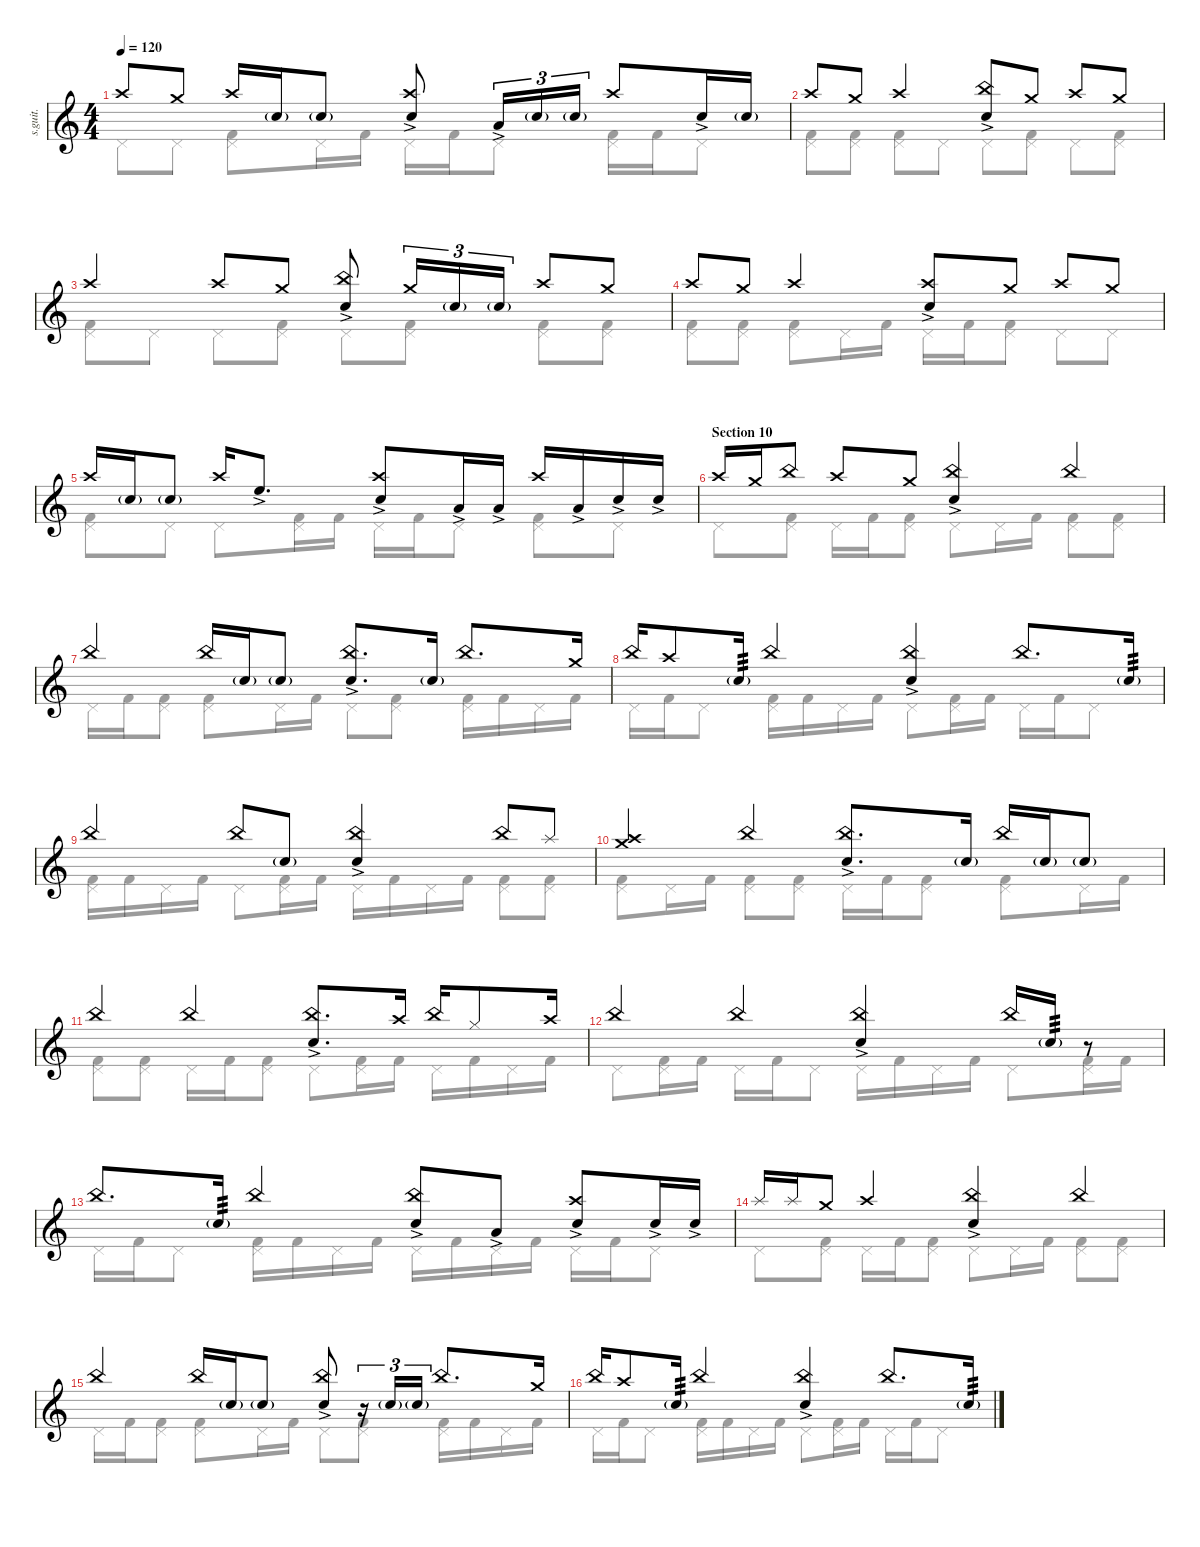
\defaultSystemsLayout 4
\hideDynamics
\bracketExtendMode nobrackets
\track ("Matt Halpern" "s.guit.") {instrument percussion}
\staff {score}
\articulation defaults
\voice
\ts (4 4)
\tempo 120
\clef g2
\ks c "Crash high (hit)".8{lyrics (0 "") lyrics (1 "") lyrics (2 "") lyrics (3 "") lyrics (4 "") dy f} "Crash medium (hit)".8{lyrics (0 "") lyrics (1 "") lyrics (2 "") lyrics (3 "") lyrics (4 "")} "Crash high (hit)".16{lyrics (0 "") lyrics (1 "") lyrics (2 "") lyrics (3 "") lyrics (4 "")} "Snare (hit) 2"{g}.16{lyrics (0 "") lyrics (1 "") lyrics (2 "") lyrics (3 "") lyrics (4 "")} "Snare (hit) 2"{g}.8{lyrics (0 "") lyrics (1 "") lyrics (2 "") lyrics (3 "") lyrics (4 "")}
("Crash high (hit)" "Snare (hit) 2"{ac}).8{lyrics (0 "") lyrics (1 "") lyrics (2 "") lyrics (3 "") lyrics (4 "")} "Low Tom (hit)"{ac}.16{tu (3 2) lyrics (0 "") lyrics (1 "") lyrics (2 "") lyrics (3 "") lyrics (4 "")} "Snare (hit) 2"{g}.16{tu (3 2) lyrics (0 "") lyrics (1 "") lyrics (2 "") lyrics (3 "") lyrics (4 "")} "Snare (hit) 2"{g}.16{tu (3 2) lyrics (0 "") lyrics (1 "") lyrics (2 "") lyrics (3 "") lyrics (4 "")} "Crash high (hit)".8{lyrics (0 "") lyrics (1 "") lyrics (2 "") lyrics (3 "") lyrics (4 "")} "Snare (hit) 2"{ac}.16{lyrics (0 "") lyrics (1 "") lyrics (2 "") lyrics (3 "") lyrics (4 "")} "Snare (hit) 2"{g}.16{lyrics (0 "") lyrics (1 "") lyrics (2 "") lyrics (3 "") lyrics (4 "")} |
"Crash high (hit)".8{lyrics (0 "") lyrics (1 "") lyrics (2 "") lyrics (3 "") lyrics (4 "")} "Crash medium (hit)".8{lyrics (0 "") lyrics (1 "") lyrics (2 "") lyrics (3 "") lyrics (4 "")} "Crash high (hit)".4{lyrics (0 "") lyrics (1 "") lyrics (2 "") lyrics (3 "") lyrics (4 "")} ("Snare (hit) 2"{ac} "China (hit)").8{lyrics (0 "") lyrics (1 "") lyrics (2 "") lyrics (3 "") lyrics (4 "")} "Crash medium (hit)".8{lyrics (0 "") lyrics (1 "") lyrics (2 "") lyrics (3 "") lyrics (4 "")} "Crash high (hit)".8{lyrics (0 "") lyrics (1 "") lyrics (2 "") lyrics (3 "") lyrics (4 "")} "Crash medium (hit)".8{lyrics (0 "") lyrics (1 "") lyrics (2 "") lyrics (3 "") lyrics (4 "")} |
"Crash high (hit)".4{lyrics (0 "") lyrics (1 "") lyrics (2 "") lyrics (3 "") lyrics (4 "")} "Crash high (hit)".8{lyrics (0 "") lyrics (1 "") lyrics (2 "") lyrics (3 "") lyrics (4 "")} "Crash medium (hit)".8{lyrics (0 "") lyrics (1 "") lyrics (2 "") lyrics (3 "") lyrics (4 "")} ("China (hit)" "Snare (hit) 2"{ac}).8{lyrics (0 "") lyrics (1 "") lyrics (2 "") lyrics (3 "") lyrics (4 "")} "Crash medium (hit)".16{tu (3 2) lyrics (0 "") lyrics (1 "") lyrics (2 "") lyrics (3 "") lyrics (4 "")} "Snare (hit) 2"{g}.16{tu (3 2) lyrics (0 "") lyrics (1 "") lyrics (2 "") lyrics (3 "") lyrics (4 "")} "Snare (hit) 2"{g}.16{tu (3 2) lyrics (0 "") lyrics (1 "") lyrics (2 "") lyrics (3 "") lyrics (4 "")} "Crash high (hit)".8{lyrics (0 "") lyrics (1 "") lyrics (2 "") lyrics (3 "") lyrics (4 "")} "Crash medium (hit)".8{lyrics (0 "") lyrics (1 "") lyrics (2 "") lyrics (3 "") lyrics (4 "")} |
"Crash high (hit)".8{lyrics (0 "") lyrics (1 "") lyrics (2 "") lyrics (3 "") lyrics (4 "")} "Crash medium (hit)".8{lyrics (0 "") lyrics (1 "") lyrics (2 "") lyrics (3 "") lyrics (4 "")} "Crash high (hit)".4{lyrics (0 "") lyrics (1 "") lyrics (2 "") lyrics (3 "") lyrics (4 "")} ("Crash high (hit)" "Snare (hit) 2"{ac}).8{lyrics (0 "") lyrics (1 "") lyrics (2 "") lyrics (3 "") lyrics (4 "")} "Crash medium (hit)".8{lyrics (0 "") lyrics (1 "") lyrics (2 "") lyrics (3 "") lyrics (4 "")} "Crash high (hit)".8{lyrics (0 "") lyrics (1 "") lyrics (2 "") lyrics (3 "") lyrics (4 "")} "Crash medium (hit)".8{lyrics (0 "") lyrics (1 "") lyrics (2 "") lyrics (3 "") lyrics (4 "")} |
"Crash high (hit)".16{lyrics (0 "") lyrics (1 "") lyrics (2 "") lyrics (3 "") lyrics (4 "")} "Snare (hit) 2"{g}.16{lyrics (0 "") lyrics (1 "") lyrics (2 "") lyrics (3 "") lyrics (4 "")} "Snare (hit) 2"{g}.8{lyrics (0 "") lyrics (1 "") lyrics (2 "") lyrics (3 "") lyrics (4 "")} "Crash high (hit)".16{lyrics (0 "") lyrics (1 "") lyrics (2 "") lyrics (3 "") lyrics (4 "")} "High Floor Tom (hit)"{ac}.8{d lyrics (0 "") lyrics (1 "") lyrics (2 "") lyrics (3 "") lyrics (4 "")} ("Crash high (hit)" "Snare (hit) 2"{ac}).8{lyrics (0 "") lyrics (1 "") lyrics (2 "") lyrics (3 "") lyrics (4 "")} "Low Tom (hit)"{ac}.16{lyrics (0 "") lyrics (1 "") lyrics (2 "") lyrics (3 "") lyrics (4 "")} "Low Tom (hit)"{ac}.16{lyrics (0 "") lyrics (1 "") lyrics (2 "") lyrics (3 "") lyrics (4 "")} "Crash high (hit)".16{lyrics (0 "") lyrics (1 "") lyrics (2 "") lyrics (3 "") lyrics (4 "")} "Low Tom (hit)"{ac}.16{lyrics (0 "") lyrics (1 "") lyrics (2 "") lyrics (3 "") lyrics (4 "")} "Snare (hit) 2"{ac}.16{lyrics (0 "") lyrics (1 "") lyrics (2 "") lyrics (3 "") lyrics (4 "")} "Snare (hit) 2"{ac}.16{lyrics (0 "") lyrics (1 "") lyrics (2 "") lyrics (3 "") lyrics (4 "")} |
\section ("" "Section 10")
"Crash high (hit)".16{lyrics (0 "") lyrics (1 "") lyrics (2 "") lyrics (3 "") lyrics (4 "")} "Crash medium (hit)".16{lyrics (0 "") lyrics (1 "") lyrics (2 "") lyrics (3 "") lyrics (4 "")} "China (hit)".8{lyrics (0 "") lyrics (1 "") lyrics (2 "") lyrics (3 "") lyrics (4 "")} "Crash high (hit)".8{lyrics (0 "") lyrics (1 "") lyrics (2 "") lyrics (3 "") lyrics (4 "")} "Crash medium (hit)".8{lyrics (0 "") lyrics (1 "") lyrics (2 "") lyrics (3 "") lyrics (4 "")} ("China (hit)" "Snare (hit) 2"{ac}).4{lyrics (0 "") lyrics (1 "") lyrics (2 "") lyrics (3 "") lyrics (4 "")} "China (hit)".4{lyrics (0 "") lyrics (1 "") lyrics (2 "") lyrics (3 "") lyrics (4 "")} |
"China (hit)".4{lyrics (0 "") lyrics (1 "") lyrics (2 "") lyrics (3 "") lyrics (4 "")} "China (hit)".16{lyrics (0 "") lyrics (1 "") lyrics (2 "") lyrics (3 "") lyrics (4 "")} "Snare (hit) 2"{g}.16{lyrics (0 "") lyrics (1 "") lyrics (2 "") lyrics (3 "") lyrics (4 "")} "Snare (hit) 2"{g}.8{lyrics (0 "") lyrics (1 "") lyrics (2 "") lyrics (3 "") lyrics (4 "")} ("Snare (hit) 2"{ac} "China (hit)").8{d lyrics (0 "") lyrics (1 "") lyrics (2 "") lyrics (3 "") lyrics (4 "")} "Snare (hit) 2"{g}.16{lyrics (0 "") lyrics (1 "") lyrics (2 "") lyrics (3 "") lyrics (4 "")} "China (hit)".8{d lyrics (0 "") lyrics (1 "") lyrics (2 "") lyrics (3 "") lyrics (4 "")} "Crash medium (hit)".16{lyrics (0 "") lyrics (1 "") lyrics (2 "") lyrics (3 "") lyrics (4 "")} |
"China (hit)".16{lyrics (0 "") lyrics (1 "") lyrics (2 "") lyrics (3 "") lyrics (4 "")} "Crash high (hit)".8{lyrics (0 "") lyrics (1 "") lyrics (2 "") lyrics (3 "") lyrics (4 "")} "Snare (hit) 2"{g}.16{lyrics (0 "") lyrics (1 "") lyrics (2 "") lyrics (3 "") lyrics (4 "") tp 3} "China (hit)".4{lyrics (0 "") lyrics (1 "") lyrics (2 "") lyrics (3 "") lyrics (4 "")} ("China (hit)" "Snare (hit) 2"{ac}).4{lyrics (0 "") lyrics (1 "") lyrics (2 "") lyrics (3 "") lyrics (4 "")} "China (hit)".8{d lyrics (0 "") lyrics (1 "") lyrics (2 "") lyrics (3 "") lyrics (4 "")} "Snare (hit) 2"{g}.16{lyrics (0 "") lyrics (1 "") lyrics (2 "") lyrics (3 "") lyrics (4 "") tp 3} |
"China (hit)".4{lyrics (0 "") lyrics (1 "") lyrics (2 "") lyrics (3 "") lyrics (4 "")} "China (hit)".8{lyrics (0 "") lyrics (1 "") lyrics (2 "") lyrics (3 "") lyrics (4 "")} "Snare (hit) 2"{g}.8{lyrics (0 "") lyrics (1 "") lyrics (2 "") lyrics (3 "") lyrics (4 "")} ("Snare (hit) 2"{ac} "China (hit)").4{lyrics (0 "") lyrics (1 "") lyrics (2 "") lyrics (3 "") lyrics (4 "")} "China (hit)".8{lyrics (0 "") lyrics (1 "") lyrics (2 "") lyrics (3 "") lyrics (4 "")} "Splash (hit)".8{lyrics (0 "") lyrics (1 "") lyrics (2 "") lyrics (3 "") lyrics (4 "")} |
("Crash medium (hit)" "Crash high (hit)").4{lyrics (0 "") lyrics (1 "") lyrics (2 "") lyrics (3 "") lyrics (4 "")} "China (hit)".4{lyrics (0 "") lyrics (1 "") lyrics (2 "") lyrics (3 "") lyrics (4 "")} ("China (hit)" "Snare (hit) 2"{ac}).8{d lyrics (0 "") lyrics (1 "") lyrics (2 "") lyrics (3 "") lyrics (4 "")} "Snare (hit) 2"{g}.16{lyrics (0 "") lyrics (1 "") lyrics (2 "") lyrics (3 "") lyrics (4 "")} "China (hit)".16{lyrics (0 "") lyrics (1 "") lyrics (2 "") lyrics (3 "") lyrics (4 "")} "Snare (hit) 2"{g}.16{lyrics (0 "") lyrics (1 "") lyrics (2 "") lyrics (3 "") lyrics (4 "")} "Snare (hit) 2"{g}.8{lyrics (0 "") lyrics (1 "") lyrics (2 "") lyrics (3 "") lyrics (4 "")} |
"China (hit)".4{lyrics (0 "") lyrics (1 "") lyrics (2 "") lyrics (3 "") lyrics (4 "")} "China (hit)".4{lyrics (0 "") lyrics (1 "") lyrics (2 "") lyrics (3 "") lyrics (4 "")} ("China (hit)" "Snare (hit) 2"{ac}).8{d lyrics (0 "") lyrics (1 "") lyrics (2 "") lyrics (3 "") lyrics (4 "")} "Crash high (hit)".16{lyrics (0 "") lyrics (1 "") lyrics (2 "") lyrics (3 "") lyrics (4 "")} "China (hit)".16{lyrics (0 "") lyrics (1 "") lyrics (2 "") lyrics (3 "") lyrics (4 "")} "Hi-Hat (closed)".8{lyrics (0 "") lyrics (1 "") lyrics (2 "") lyrics (3 "") lyrics (4 "")} "Crash high (hit)".16{lyrics (0 "") lyrics (1 "") lyrics (2 "") lyrics (3 "") lyrics (4 "")} |
"China (hit)".4{lyrics (0 "") lyrics (1 "") lyrics (2 "") lyrics (3 "") lyrics (4 "")} "China (hit)".4{lyrics (0 "") lyrics (1 "") lyrics (2 "") lyrics (3 "") lyrics (4 "")} ("China (hit)" "Snare (hit) 2"{ac}).4{lyrics (0 "") lyrics (1 "") lyrics (2 "") lyrics (3 "") lyrics (4 "")} "China (hit)".16{lyrics (0 "") lyrics (1 "") lyrics (2 "") lyrics (3 "") lyrics (4 "")} "Snare (hit) 2"{g}.16{lyrics (0 "") lyrics (1 "") lyrics (2 "") lyrics (3 "") lyrics (4 "") tp 3} r.8 |
"China (hit)".8{d lyrics (0 "") lyrics (1 "") lyrics (2 "") lyrics (3 "") lyrics (4 "")} "Snare (hit) 2"{g}.16{lyrics (0 "") lyrics (1 "") lyrics (2 "") lyrics (3 "") lyrics (4 "") tp 3} "China (hit)".4{lyrics (0 "") lyrics (1 "") lyrics (2 "") lyrics (3 "") lyrics (4 "")} ("China (hit)" "Snare (hit) 2"{ac}).8{lyrics (0 "") lyrics (1 "") lyrics (2 "") lyrics (3 "") lyrics (4 "")} "Low Tom (hit)"{ac}.8{lyrics (0 "") lyrics (1 "") lyrics (2 "") lyrics (3 "") lyrics (4 "")} ("Crash high (hit)" "Snare (hit) 2"{ac}).8{lyrics (0 "") lyrics (1 "") lyrics (2 "") lyrics (3 "") lyrics (4 "")} "Snare (hit) 2"{ac}.16{lyrics (0 "") lyrics (1 "") lyrics (2 "") lyrics (3 "") lyrics (4 "")} "Snare (hit) 2"{ac}.16{lyrics (0 "") lyrics (1 "") lyrics (2 "") lyrics (3 "") lyrics (4 "")} |
"Splash (hit)".16{lyrics (0 "") lyrics (1 "") lyrics (2 "") lyrics (3 "") lyrics (4 "")} "Splash (hit)".16{lyrics (0 "") lyrics (1 "") lyrics (2 "") lyrics (3 "") lyrics (4 "")} "Crash medium (hit)".8{lyrics (0 "") lyrics (1 "") lyrics (2 "") lyrics (3 "") lyrics (4 "")} "Crash high (hit)".4{lyrics (0 "") lyrics (1 "") lyrics (2 "") lyrics (3 "") lyrics (4 "")} ("China (hit)" "Snare (hit) 2"{ac}).4{lyrics (0 "") lyrics (1 "") lyrics (2 "") lyrics (3 "") lyrics (4 "")} "China (hit)".4{lyrics (0 "") lyrics (1 "") lyrics (2 "") lyrics (3 "") lyrics (4 "")} |
"China (hit)".4{lyrics (0 "") lyrics (1 "") lyrics (2 "") lyrics (3 "") lyrics (4 "")} "China (hit)".16{lyrics (0 "") lyrics (1 "") lyrics (2 "") lyrics (3 "") lyrics (4 "")} "Snare (hit) 2"{g}.16{lyrics (0 "") lyrics (1 "") lyrics (2 "") lyrics (3 "") lyrics (4 "")} "Snare (hit) 2"{g}.8{lyrics (0 "") lyrics (1 "") lyrics (2 "") lyrics (3 "") lyrics (4 "")} ("Snare (hit) 2"{ac} "China (hit)").8{lyrics (0 "") lyrics (1 "") lyrics (2 "") lyrics (3 "") lyrics (4 "")} r.16{tu (3 2)} "Snare (hit) 2"{g}.16{tu (3 2) lyrics (0 "") lyrics (1 "") lyrics (2 "") lyrics (3 "") lyrics (4 "")} "Snare (hit) 2"{g}.16{tu (3 2) lyrics (0 "") lyrics (1 "") lyrics (2 "") lyrics (3 "") lyrics (4 "")} "China (hit)".8{d lyrics (0 "") lyrics (1 "") lyrics (2 "") lyrics (3 "") lyrics (4 "")} "Crash medium (hit)".16{lyrics (0 "") lyrics (1 "") lyrics (2 "") lyrics (3 "") lyrics (4 "")} |
"China (hit)".16{lyrics (0 "") lyrics (1 "") lyrics (2 "") lyrics (3 "") lyrics (4 "")} "Crash high (hit)".8{lyrics (0 "") lyrics (1 "") lyrics (2 "") lyrics (3 "") lyrics (4 "")} "Snare (hit) 2"{g}.16{lyrics (0 "") lyrics (1 "") lyrics (2 "") lyrics (3 "") lyrics (4 "") tp 3} "China (hit)".4{lyrics (0 "") lyrics (1 "") lyrics (2 "") lyrics (3 "") lyrics (4 "")} ("China (hit)" "Snare (hit) 2"{ac}).4{lyrics (0 "") lyrics (1 "") lyrics (2 "") lyrics (3 "") lyrics (4 "")} "China (hit)".8{d lyrics (0 "") lyrics (1 "") lyrics (2 "") lyrics (3 "") lyrics (4 "")} "Snare (hit) 2"{g}.16{lyrics (0 "") lyrics (1 "") lyrics (2 "") lyrics (3 "") lyrics (4 "") tp 3}
\voice
\clef g2
\ottava regular
\simile none
\ks c "Pedal Hi-Hat (hit)".8{lyrics (0 "") lyrics (1 "") lyrics (2 "") lyrics (3 "") lyrics (4 "") dy f} "Pedal Hi-Hat (hit)".8{lyrics (0 "") lyrics (1 "") lyrics (2 "") lyrics (3 "") lyrics (4 "")}
("Kick (hit) 2" "Pedal Hi-Hat (hit)").8{lyrics (0 "") lyrics (1 "") lyrics (2 "") lyrics (3 "") lyrics (4 "")} "Pedal Hi-Hat (hit)".16{lyrics (0 "") lyrics (1 "") lyrics (2 "") lyrics (3 "") lyrics (4 "")} "Kick (hit) 2".16{lyrics (0 "") lyrics (1 "") lyrics (2 "") lyrics (3 "") lyrics (4 "")} "Pedal Hi-Hat (hit)".16{lyrics (0 "") lyrics (1 "") lyrics (2 "") lyrics (3 "") lyrics (4 "")} "Kick (hit) 2".16{lyrics (0 "") lyrics (1 "") lyrics (2 "") lyrics (3 "") lyrics (4 "")} "Pedal Hi-Hat (hit)".8{lyrics (0 "") lyrics (1 "") lyrics (2 "") lyrics (3 "") lyrics (4 "")} ("Pedal Hi-Hat (hit)" "Kick (hit) 2").16{lyrics (0 "") lyrics (1 "") lyrics (2 "") lyrics (3 "") lyrics (4 "")} "Kick (hit) 2".16{lyrics (0 "") lyrics (1 "") lyrics (2 "") lyrics (3 "") lyrics (4 "")} "Pedal Hi-Hat (hit)".8{lyrics (0 "") lyrics (1 "") lyrics (2 "") lyrics (3 "") lyrics (4 "")} |
("Kick (hit) 2" "Pedal Hi-Hat (hit)").8{lyrics (0 "") lyrics (1 "") lyrics (2 "") lyrics (3 "") lyrics (4 "")} ("Kick (hit) 2" "Pedal Hi-Hat (hit)").8{lyrics (0 "") lyrics (1 "") lyrics (2 "") lyrics (3 "") lyrics (4 "")} ("Kick (hit) 2" "Pedal Hi-Hat (hit)").8{lyrics (0 "") lyrics (1 "") lyrics (2 "") lyrics (3 "") lyrics (4 "")} "Pedal Hi-Hat (hit)".8{lyrics (0 "") lyrics (1 "") lyrics (2 "") lyrics (3 "") lyrics (4 "")} "Pedal Hi-Hat (hit)".8{lyrics (0 "") lyrics (1 "") lyrics (2 "") lyrics (3 "") lyrics (4 "")} ("Pedal Hi-Hat (hit)" "Kick (hit) 2").8{lyrics (0 "") lyrics (1 "") lyrics (2 "") lyrics (3 "") lyrics (4 "")} "Pedal Hi-Hat (hit)".8{lyrics (0 "") lyrics (1 "") lyrics (2 "") lyrics (3 "") lyrics (4 "")} ("Pedal Hi-Hat (hit)" "Kick (hit) 2").8{lyrics (0 "") lyrics (1 "") lyrics (2 "") lyrics (3 "") lyrics (4 "")} |
("Pedal Hi-Hat (hit)" "Kick (hit) 2").8{lyrics (0 "") lyrics (1 "") lyrics (2 "") lyrics (3 "") lyrics (4 "")} "Pedal Hi-Hat (hit)".8{lyrics (0 "") lyrics (1 "") lyrics (2 "") lyrics (3 "") lyrics (4 "")} "Pedal Hi-Hat (hit)".8{lyrics (0 "") lyrics (1 "") lyrics (2 "") lyrics (3 "") lyrics (4 "")} ("Pedal Hi-Hat (hit)" "Kick (hit) 2").8{lyrics (0 "") lyrics (1 "") lyrics (2 "") lyrics (3 "") lyrics (4 "")} "Pedal Hi-Hat (hit)".8{lyrics (0 "") lyrics (1 "") lyrics (2 "") lyrics (3 "") lyrics (4 "")} ("Pedal Hi-Hat (hit)" "Kick (hit) 2").8{lyrics (0 "") lyrics (1 "") lyrics (2 "") lyrics (3 "") lyrics (4 "")} ("Pedal Hi-Hat (hit)" "Kick (hit) 2").8{lyrics (0 "") lyrics (1 "") lyrics (2 "") lyrics (3 "") lyrics (4 "")} ("Pedal Hi-Hat (hit)" "Kick (hit) 2").8{lyrics (0 "") lyrics (1 "") lyrics (2 "") lyrics (3 "") lyrics (4 "")} |
("Kick (hit) 2" "Pedal Hi-Hat (hit)").8{lyrics (0 "") lyrics (1 "") lyrics (2 "") lyrics (3 "") lyrics (4 "")} ("Kick (hit) 2" "Pedal Hi-Hat (hit)").8{lyrics (0 "") lyrics (1 "") lyrics (2 "") lyrics (3 "") lyrics (4 "")} ("Kick (hit) 2" "Pedal Hi-Hat (hit)").8{lyrics (0 "") lyrics (1 "") lyrics (2 "") lyrics (3 "") lyrics (4 "")} "Pedal Hi-Hat (hit)".16{lyrics (0 "") lyrics (1 "") lyrics (2 "") lyrics (3 "") lyrics (4 "")} "Kick (hit) 2".16{lyrics (0 "") lyrics (1 "") lyrics (2 "") lyrics (3 "") lyrics (4 "")} "Pedal Hi-Hat (hit)".16{lyrics (0 "") lyrics (1 "") lyrics (2 "") lyrics (3 "") lyrics (4 "")} "Kick (hit) 2".16{lyrics (0 "") lyrics (1 "") lyrics (2 "") lyrics (3 "") lyrics (4 "")} ("Kick (hit) 2" "Pedal Hi-Hat (hit)").8{lyrics (0 "") lyrics (1 "") lyrics (2 "") lyrics (3 "") lyrics (4 "")} "Pedal Hi-Hat (hit)".8{lyrics (0 "") lyrics (1 "") lyrics (2 "") lyrics (3 "") lyrics (4 "")} "Pedal Hi-Hat (hit)".8{lyrics (0 "") lyrics (1 "") lyrics (2 "") lyrics (3 "") lyrics (4 "")} |
("Pedal Hi-Hat (hit)" "Kick (hit) 2").8{lyrics (0 "") lyrics (1 "") lyrics (2 "") lyrics (3 "") lyrics (4 "")} "Pedal Hi-Hat (hit)".8{lyrics (0 "") lyrics (1 "") lyrics (2 "") lyrics (3 "") lyrics (4 "")} "Pedal Hi-Hat (hit)".8{lyrics (0 "") lyrics (1 "") lyrics (2 "") lyrics (3 "") lyrics (4 "")} ("Pedal Hi-Hat (hit)" "Kick (hit) 2").16{lyrics (0 "") lyrics (1 "") lyrics (2 "") lyrics (3 "") lyrics (4 "")} "Kick (hit) 2".16{lyrics (0 "") lyrics (1 "") lyrics (2 "") lyrics (3 "") lyrics (4 "")} "Pedal Hi-Hat (hit)".16{lyrics (0 "") lyrics (1 "") lyrics (2 "") lyrics (3 "") lyrics (4 "")} "Kick (hit) 2".16{lyrics (0 "") lyrics (1 "") lyrics (2 "") lyrics (3 "") lyrics (4 "")} "Pedal Hi-Hat (hit)".8{lyrics (0 "") lyrics (1 "") lyrics (2 "") lyrics (3 "") lyrics (4 "")} ("Pedal Hi-Hat (hit)" "Kick (hit) 2").8{lyrics (0 "") lyrics (1 "") lyrics (2 "") lyrics (3 "") lyrics (4 "")} "Pedal Hi-Hat (hit)".8{lyrics (0 "") lyrics (1 "") lyrics (2 "") lyrics (3 "") lyrics (4 "")} |
"Pedal Hi-Hat (hit)".8{lyrics (0 "") lyrics (1 "") lyrics (2 "") lyrics (3 "") lyrics (4 "")} ("Pedal Hi-Hat (hit)" "Kick (hit) 2").8{lyrics (0 "") lyrics (1 "") lyrics (2 "") lyrics (3 "") lyrics (4 "")} "Pedal Hi-Hat (hit)".16{lyrics (0 "") lyrics (1 "") lyrics (2 "") lyrics (3 "") lyrics (4 "")} "Kick (hit) 2".16{lyrics (0 "") lyrics (1 "") lyrics (2 "") lyrics (3 "") lyrics (4 "")} ("Kick (hit) 2" "Pedal Hi-Hat (hit)").8{lyrics (0 "") lyrics (1 "") lyrics (2 "") lyrics (3 "") lyrics (4 "")} "Pedal Hi-Hat (hit)".8{lyrics (0 "") lyrics (1 "") lyrics (2 "") lyrics (3 "") lyrics (4 "")} "Pedal Hi-Hat (hit)".16{lyrics (0 "") lyrics (1 "") lyrics (2 "") lyrics (3 "") lyrics (4 "")} "Kick (hit) 2".16{lyrics (0 "") lyrics (1 "") lyrics (2 "") lyrics (3 "") lyrics (4 "")} ("Pedal Hi-Hat (hit)" "Kick (hit) 2").8{lyrics (0 "") lyrics (1 "") lyrics (2 "") lyrics (3 "") lyrics (4 "")} ("Pedal Hi-Hat (hit)" "Kick (hit) 2").8{lyrics (0 "") lyrics (1 "") lyrics (2 "") lyrics (3 "") lyrics (4 "")} |
"Pedal Hi-Hat (hit)".16{lyrics (0 "") lyrics (1 "") lyrics (2 "") lyrics (3 "") lyrics (4 "")} "Kick (hit) 2".16{lyrics (0 "") lyrics (1 "") lyrics (2 "") lyrics (3 "") lyrics (4 "")} ("Kick (hit) 2" "Pedal Hi-Hat (hit)").8{lyrics (0 "") lyrics (1 "") lyrics (2 "") lyrics (3 "") lyrics (4 "")} ("Pedal Hi-Hat (hit)" "Kick (hit) 2").8{lyrics (0 "") lyrics (1 "") lyrics (2 "") lyrics (3 "") lyrics (4 "")} "Pedal Hi-Hat (hit)".16{lyrics (0 "") lyrics (1 "") lyrics (2 "") lyrics (3 "") lyrics (4 "")} "Kick (hit) 2".16{lyrics (0 "") lyrics (1 "") lyrics (2 "") lyrics (3 "") lyrics (4 "")} "Pedal Hi-Hat (hit)".8{lyrics (0 "") lyrics (1 "") lyrics (2 "") lyrics (3 "") lyrics (4 "")} ("Pedal Hi-Hat (hit)" "Kick (hit) 2").8{lyrics (0 "") lyrics (1 "") lyrics (2 "") lyrics (3 "") lyrics (4 "")} ("Pedal Hi-Hat (hit)" "Kick (hit) 2").16{lyrics (0 "") lyrics (1 "") lyrics (2 "") lyrics (3 "") lyrics (4 "")} "Kick (hit) 2".16{lyrics (0 "") lyrics (1 "") lyrics (2 "") lyrics (3 "") lyrics (4 "")} "Pedal Hi-Hat (hit)".16{lyrics (0 "") lyrics (1 "") lyrics (2 "") lyrics (3 "") lyrics (4 "")} "Kick (hit) 2".16{lyrics (0 "") lyrics (1 "") lyrics (2 "") lyrics (3 "") lyrics (4 "")} |
"Pedal Hi-Hat (hit)".16{lyrics (0 "") lyrics (1 "") lyrics (2 "") lyrics (3 "") lyrics (4 "")} "Kick (hit) 2".16{lyrics (0 "") lyrics (1 "") lyrics (2 "") lyrics (3 "") lyrics (4 "")} "Pedal Hi-Hat (hit)".8{lyrics (0 "") lyrics (1 "") lyrics (2 "") lyrics (3 "") lyrics (4 "")} ("Kick (hit) 2" "Pedal Hi-Hat (hit)").16{lyrics (0 "") lyrics (1 "") lyrics (2 "") lyrics (3 "") lyrics (4 "")} "Kick (hit) 2".16{lyrics (0 "") lyrics (1 "") lyrics (2 "") lyrics (3 "") lyrics (4 "")} "Pedal Hi-Hat (hit)".16{lyrics (0 "") lyrics (1 "") lyrics (2 "") lyrics (3 "") lyrics (4 "")} "Kick (hit) 2".16{lyrics (0 "") lyrics (1 "") lyrics (2 "") lyrics (3 "") lyrics (4 "")} "Pedal Hi-Hat (hit)".8{lyrics (0 "") lyrics (1 "") lyrics (2 "") lyrics (3 "") lyrics (4 "")} ("Kick (hit) 2" "Pedal Hi-Hat (hit)").16{lyrics (0 "") lyrics (1 "") lyrics (2 "") lyrics (3 "") lyrics (4 "")} "Kick (hit) 2".16{lyrics (0 "") lyrics (1 "") lyrics (2 "") lyrics (3 "") lyrics (4 "")} "Pedal Hi-Hat (hit)".16{lyrics (0 "") lyrics (1 "") lyrics (2 "") lyrics (3 "") lyrics (4 "")} "Kick (hit) 2".16{lyrics (0 "") lyrics (1 "") lyrics (2 "") lyrics (3 "") lyrics (4 "")} "Pedal Hi-Hat (hit)".8{lyrics (0 "") lyrics (1 "") lyrics (2 "") lyrics (3 "") lyrics (4 "")} |
("Kick (hit) 2" "Pedal Hi-Hat (hit)").16{lyrics (0 "") lyrics (1 "") lyrics (2 "") lyrics (3 "") lyrics (4 "")} "Kick (hit) 2".16{lyrics (0 "") lyrics (1 "") lyrics (2 "") lyrics (3 "") lyrics (4 "")} "Pedal Hi-Hat (hit)".16{lyrics (0 "") lyrics (1 "") lyrics (2 "") lyrics (3 "") lyrics (4 "")} "Kick (hit) 2".16{lyrics (0 "") lyrics (1 "") lyrics (2 "") lyrics (3 "") lyrics (4 "")} "Pedal Hi-Hat (hit)".8{lyrics (0 "") lyrics (1 "") lyrics (2 "") lyrics (3 "") lyrics (4 "")} ("Pedal Hi-Hat (hit)" "Kick (hit) 2").16{lyrics (0 "") lyrics (1 "") lyrics (2 "") lyrics (3 "") lyrics (4 "")} "Kick (hit) 2".16{lyrics (0 "") lyrics (1 "") lyrics (2 "") lyrics (3 "") lyrics (4 "")} "Pedal Hi-Hat (hit)".16{lyrics (0 "") lyrics (1 "") lyrics (2 "") lyrics (3 "") lyrics (4 "")} "Kick (hit) 2".16{lyrics (0 "") lyrics (1 "") lyrics (2 "") lyrics (3 "") lyrics (4 "")} "Pedal Hi-Hat (hit)".16{lyrics (0 "") lyrics (1 "") lyrics (2 "") lyrics (3 "") lyrics (4 "")} "Kick (hit) 2".16{lyrics (0 "") lyrics (1 "") lyrics (2 "") lyrics (3 "") lyrics (4 "")} ("Pedal Hi-Hat (hit)" "Kick (hit) 2").8{lyrics (0 "") lyrics (1 "") lyrics (2 "") lyrics (3 "") lyrics (4 "")} ("Pedal Hi-Hat (hit)" "Kick (hit) 2").8{lyrics (0 "") lyrics (1 "") lyrics (2 "") lyrics (3 "") lyrics (4 "")} |
("Pedal Hi-Hat (hit)" "Kick (hit) 2").8{lyrics (0 "") lyrics (1 "") lyrics (2 "") lyrics (3 "") lyrics (4 "")} "Pedal Hi-Hat (hit)".16{lyrics (0 "") lyrics (1 "") lyrics (2 "") lyrics (3 "") lyrics (4 "")} "Kick (hit) 2".16{lyrics (0 "") lyrics (1 "") lyrics (2 "") lyrics (3 "") lyrics (4 "")} ("Pedal Hi-Hat (hit)" "Kick (hit) 2").8{lyrics (0 "") lyrics (1 "") lyrics (2 "") lyrics (3 "") lyrics (4 "")} ("Kick (hit) 2" "Pedal Hi-Hat (hit)").8{lyrics (0 "") lyrics (1 "") lyrics (2 "") lyrics (3 "") lyrics (4 "")} "Pedal Hi-Hat (hit)".16{lyrics (0 "") lyrics (1 "") lyrics (2 "") lyrics (3 "") lyrics (4 "")} "Kick (hit) 2".16{lyrics (0 "") lyrics (1 "") lyrics (2 "") lyrics (3 "") lyrics (4 "")} ("Kick (hit) 2" "Pedal Hi-Hat (hit)").8{lyrics (0 "") lyrics (1 "") lyrics (2 "") lyrics (3 "") lyrics (4 "")} ("Pedal Hi-Hat (hit)" "Kick (hit) 2").8{lyrics (0 "") lyrics (1 "") lyrics (2 "") lyrics (3 "") lyrics (4 "")} "Pedal Hi-Hat (hit)".16{lyrics (0 "") lyrics (1 "") lyrics (2 "") lyrics (3 "") lyrics (4 "")} "Kick (hit) 2".16{lyrics (0 "") lyrics (1 "") lyrics (2 "") lyrics (3 "") lyrics (4 "")} |
("Kick (hit) 2" "Pedal Hi-Hat (hit)").8{lyrics (0 "") lyrics (1 "") lyrics (2 "") lyrics (3 "") lyrics (4 "")} ("Kick (hit) 2" "Pedal Hi-Hat (hit)").8{lyrics (0 "") lyrics (1 "") lyrics (2 "") lyrics (3 "") lyrics (4 "")} "Pedal Hi-Hat (hit)".16{lyrics (0 "") lyrics (1 "") lyrics (2 "") lyrics (3 "") lyrics (4 "")} "Kick (hit) 2".16{lyrics (0 "") lyrics (1 "") lyrics (2 "") lyrics (3 "") lyrics (4 "")} ("Kick (hit) 2" "Pedal Hi-Hat (hit)").8{lyrics (0 "") lyrics (1 "") lyrics (2 "") lyrics (3 "") lyrics (4 "")} "Pedal Hi-Hat (hit)".8{lyrics (0 "") lyrics (1 "") lyrics (2 "") lyrics (3 "") lyrics (4 "")} ("Pedal Hi-Hat (hit)" "Kick (hit) 2").16{lyrics (0 "") lyrics (1 "") lyrics (2 "") lyrics (3 "") lyrics (4 "")} "Kick (hit) 2".16{lyrics (0 "") lyrics (1 "") lyrics (2 "") lyrics (3 "") lyrics (4 "")} "Pedal Hi-Hat (hit)".16{lyrics (0 "") lyrics (1 "") lyrics (2 "") lyrics (3 "") lyrics (4 "")} "Kick (hit) 2".16{lyrics (0 "") lyrics (1 "") lyrics (2 "") lyrics (3 "") lyrics (4 "")} "Pedal Hi-Hat (hit)".16{lyrics (0 "") lyrics (1 "") lyrics (2 "") lyrics (3 "") lyrics (4 "")} "Kick (hit) 2".16{lyrics (0 "") lyrics (1 "") lyrics (2 "") lyrics (3 "") lyrics (4 "")} |
"Pedal Hi-Hat (hit)".8{lyrics (0 "") lyrics (1 "") lyrics (2 "") lyrics (3 "") lyrics (4 "")} ("Pedal Hi-Hat (hit)" "Kick (hit) 2").16{lyrics (0 "") lyrics (1 "") lyrics (2 "") lyrics (3 "") lyrics (4 "")} "Kick (hit) 2".16{lyrics (0 "") lyrics (1 "") lyrics (2 "") lyrics (3 "") lyrics (4 "")} "Pedal Hi-Hat (hit)".16{lyrics (0 "") lyrics (1 "") lyrics (2 "") lyrics (3 "") lyrics (4 "")} "Kick (hit) 2".16{lyrics (0 "") lyrics (1 "") lyrics (2 "") lyrics (3 "") lyrics (4 "")} "Pedal Hi-Hat (hit)".8{lyrics (0 "") lyrics (1 "") lyrics (2 "") lyrics (3 "") lyrics (4 "")} "Pedal Hi-Hat (hit)".16{lyrics (0 "") lyrics (1 "") lyrics (2 "") lyrics (3 "") lyrics (4 "")} "Kick (hit) 2".16{lyrics (0 "") lyrics (1 "") lyrics (2 "") lyrics (3 "") lyrics (4 "")} "Pedal Hi-Hat (hit)".16{lyrics (0 "") lyrics (1 "") lyrics (2 "") lyrics (3 "") lyrics (4 "")} "Kick (hit) 2".16{lyrics (0 "") lyrics (1 "") lyrics (2 "") lyrics (3 "") lyrics (4 "")} "Pedal Hi-Hat (hit)".8{lyrics (0 "") lyrics (1 "") lyrics (2 "") lyrics (3 "") lyrics (4 "")} ("Pedal Hi-Hat (hit)" "Kick (hit) 2").16{lyrics (0 "") lyrics (1 "") lyrics (2 "") lyrics (3 "") lyrics (4 "")} "Kick (hit) 2".16{lyrics (0 "") lyrics (1 "") lyrics (2 "") lyrics (3 "") lyrics (4 "")} |
"Pedal Hi-Hat (hit)".16{lyrics (0 "") lyrics (1 "") lyrics (2 "") lyrics (3 "") lyrics (4 "")} "Kick (hit) 2".16{lyrics (0 "") lyrics (1 "") lyrics (2 "") lyrics (3 "") lyrics (4 "")} "Pedal Hi-Hat (hit)".8{lyrics (0 "") lyrics (1 "") lyrics (2 "") lyrics (3 "") lyrics (4 "")} ("Pedal Hi-Hat (hit)" "Kick (hit) 2").16{lyrics (0 "") lyrics (1 "") lyrics (2 "") lyrics (3 "") lyrics (4 "")} "Kick (hit) 2".16{lyrics (0 "") lyrics (1 "") lyrics (2 "") lyrics (3 "") lyrics (4 "")} "Pedal Hi-Hat (hit)".16{lyrics (0 "") lyrics (1 "") lyrics (2 "") lyrics (3 "") lyrics (4 "")} "Kick (hit) 2".16{lyrics (0 "") lyrics (1 "") lyrics (2 "") lyrics (3 "") lyrics (4 "")} "Pedal Hi-Hat (hit)".16{lyrics (0 "") lyrics (1 "") lyrics (2 "") lyrics (3 "") lyrics (4 "")} "Kick (hit) 2".16{lyrics (0 "") lyrics (1 "") lyrics (2 "") lyrics (3 "") lyrics (4 "")} "Pedal Hi-Hat (hit)".16{lyrics (0 "") lyrics (1 "") lyrics (2 "") lyrics (3 "") lyrics (4 "")} "Kick (hit) 2".16{lyrics (0 "") lyrics (1 "") lyrics (2 "") lyrics (3 "") lyrics (4 "")} "Pedal Hi-Hat (hit)".16{lyrics (0 "") lyrics (1 "") lyrics (2 "") lyrics (3 "") lyrics (4 "")} "Kick (hit) 2".16{lyrics (0 "") lyrics (1 "") lyrics (2 "") lyrics (3 "") lyrics (4 "")} "Pedal Hi-Hat (hit)".8{lyrics (0 "") lyrics (1 "") lyrics (2 "") lyrics (3 "") lyrics (4 "")} |
"Pedal Hi-Hat (hit)".8{lyrics (0 "") lyrics (1 "") lyrics (2 "") lyrics (3 "") lyrics (4 "")} ("Pedal Hi-Hat (hit)" "Kick (hit) 2").8{lyrics (0 "") lyrics (1 "") lyrics (2 "") lyrics (3 "") lyrics (4 "")} "Pedal Hi-Hat (hit)".16{lyrics (0 "") lyrics (1 "") lyrics (2 "") lyrics (3 "") lyrics (4 "")} "Kick (hit) 2".16{lyrics (0 "") lyrics (1 "") lyrics (2 "") lyrics (3 "") lyrics (4 "")} ("Pedal Hi-Hat (hit)" "Kick (hit) 2").8{lyrics (0 "") lyrics (1 "") lyrics (2 "") lyrics (3 "") lyrics (4 "")} "Pedal Hi-Hat (hit)".8{lyrics (0 "") lyrics (1 "") lyrics (2 "") lyrics (3 "") lyrics (4 "")} "Pedal Hi-Hat (hit)".16{lyrics (0 "") lyrics (1 "") lyrics (2 "") lyrics (3 "") lyrics (4 "")} "Kick (hit) 2".16{lyrics (0 "") lyrics (1 "") lyrics (2 "") lyrics (3 "") lyrics (4 "")} ("Pedal Hi-Hat (hit)" "Kick (hit) 2").8{lyrics (0 "") lyrics (1 "") lyrics (2 "") lyrics (3 "") lyrics (4 "")} ("Kick (hit) 2" "Pedal Hi-Hat (hit)").8{lyrics (0 "") lyrics (1 "") lyrics (2 "") lyrics (3 "") lyrics (4 "")} |
"Pedal Hi-Hat (hit)".16{lyrics (0 "") lyrics (1 "") lyrics (2 "") lyrics (3 "") lyrics (4 "")} "Kick (hit) 2".16{lyrics (0 "") lyrics (1 "") lyrics (2 "") lyrics (3 "") lyrics (4 "")} ("Kick (hit) 2" "Pedal Hi-Hat (hit)").8{lyrics (0 "") lyrics (1 "") lyrics (2 "") lyrics (3 "") lyrics (4 "")} ("Pedal Hi-Hat (hit)" "Kick (hit) 2").8{lyrics (0 "") lyrics (1 "") lyrics (2 "") lyrics (3 "") lyrics (4 "")} "Pedal Hi-Hat (hit)".16{lyrics (0 "") lyrics (1 "") lyrics (2 "") lyrics (3 "") lyrics (4 "")} "Kick (hit) 2".16{lyrics (0 "") lyrics (1 "") lyrics (2 "") lyrics (3 "") lyrics (4 "")} "Pedal Hi-Hat (hit)".8{lyrics (0 "") lyrics (1 "") lyrics (2 "") lyrics (3 "") lyrics (4 "")} ("Kick (hit) 2" "Pedal Hi-Hat (hit)").8{lyrics (0 "") lyrics (1 "") lyrics (2 "") lyrics (3 "") lyrics (4 "")} ("Pedal Hi-Hat (hit)" "Kick (hit) 2").16{lyrics (0 "") lyrics (1 "") lyrics (2 "") lyrics (3 "") lyrics (4 "")} "Kick (hit) 2".16{lyrics (0 "") lyrics (1 "") lyrics (2 "") lyrics (3 "") lyrics (4 "")} "Pedal Hi-Hat (hit)".16{lyrics (0 "") lyrics (1 "") lyrics (2 "") lyrics (3 "") lyrics (4 "")} "Kick (hit) 2".16{lyrics (0 "") lyrics (1 "") lyrics (2 "") lyrics (3 "") lyrics (4 "")} |
"Pedal Hi-Hat (hit)".16{lyrics (0 "") lyrics (1 "") lyrics (2 "") lyrics (3 "") lyrics (4 "")} "Kick (hit) 2".16{lyrics (0 "") lyrics (1 "") lyrics (2 "") lyrics (3 "") lyrics (4 "")} "Pedal Hi-Hat (hit)".8{lyrics (0 "") lyrics (1 "") lyrics (2 "") lyrics (3 "") lyrics (4 "")} ("Kick (hit) 2" "Pedal Hi-Hat (hit)").16{lyrics (0 "") lyrics (1 "") lyrics (2 "") lyrics (3 "") lyrics (4 "")} "Kick (hit) 2".16{lyrics (0 "") lyrics (1 "") lyrics (2 "") lyrics (3 "") lyrics (4 "")} "Pedal Hi-Hat (hit)".16{lyrics (0 "") lyrics (1 "") lyrics (2 "") lyrics (3 "") lyrics (4 "")} "Kick (hit) 2".16{lyrics (0 "") lyrics (1 "") lyrics (2 "") lyrics (3 "") lyrics (4 "")} "Pedal Hi-Hat (hit)".8{lyrics (0 "") lyrics (1 "") lyrics (2 "") lyrics (3 "") lyrics (4 "")} ("Pedal Hi-Hat (hit)" "Kick (hit) 2").16{lyrics (0 "") lyrics (1 "") lyrics (2 "") lyrics (3 "") lyrics (4 "")} "Kick (hit) 2".16{lyrics (0 "") lyrics (1 "") lyrics (2 "") lyrics (3 "") lyrics (4 "")} "Pedal Hi-Hat (hit)".16{lyrics (0 "") lyrics (1 "") lyrics (2 "") lyrics (3 "") lyrics (4 "")} "Kick (hit) 2".16{lyrics (0 "") lyrics (1 "") lyrics (2 "") lyrics (3 "") lyrics (4 "")} "Pedal Hi-Hat (hit)".8{lyrics (0 "") lyrics (1 "") lyrics (2 "") lyrics (3 "") lyrics (4 "")}
